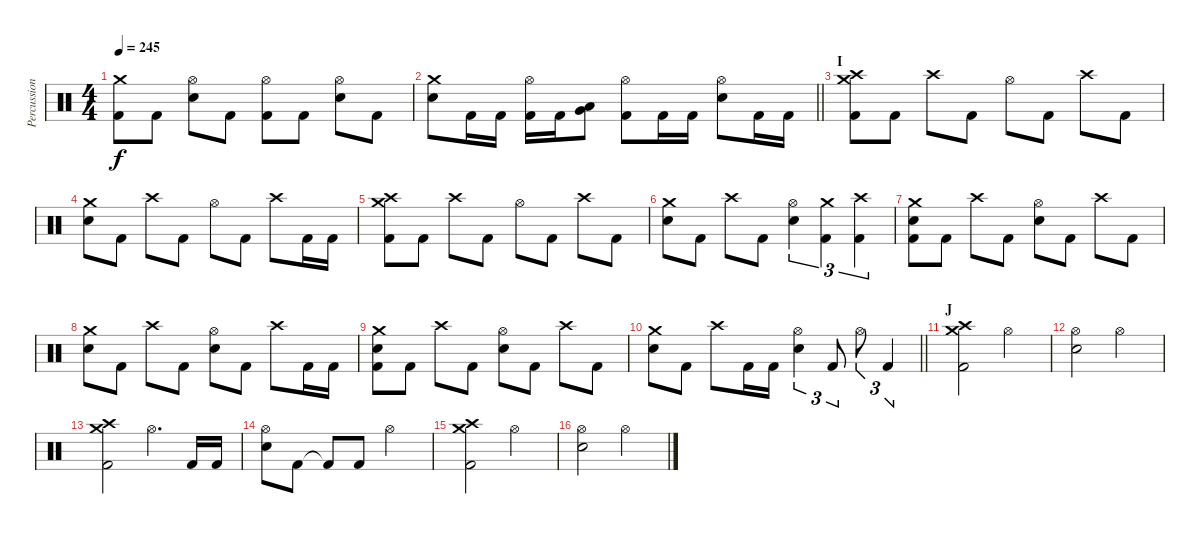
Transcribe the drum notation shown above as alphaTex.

\track ("Percussion" "Percussion") {instrument percussion}
\staff {score}
\articulation defaults
\ts (4 4)
\tempo 245
\clef neutral
\ks c
("Crash medium (hit)" "Kick (hit) 2").8{dy f} "Kick (hit) 2".8 ("Hi-Hat (open)" "Electric Snare (hit)").8 "Kick (hit) 2".8 ("Hi-Hat (open)" "Kick (hit) 2").8 "Kick (hit) 2".8 ("Hi-Hat (open)" "Electric Snare (hit)").8 "Kick (hit) 2".8 |
\barLineRight lightlight
("Crash medium (hit)" "Electric Snare (hit)").8 "Kick (hit) 2".16 "Kick (hit) 2".16 ("Hi-Hat (open)" "Kick (hit) 2").16 "Kick (hit) 2".16 ("Very Low Tom (hit)" "Low Floor Tom (hit)").8 ("Hi-Hat (open)" "Kick (hit) 2").8 "Kick (hit) 2".16 "Kick (hit) 2".16 ("Hi-Hat (open)" "Electric Snare (hit)").8 "Kick (hit) 2".16 "Kick (hit) 2".16 |
\section ("" "I")
("Crash medium (hit)" "Crash high (hit)" "Kick (hit) 2").8 "Kick (hit) 2".8 "Crash high (hit)".8 "Kick (hit) 2".8 "Hi-Hat (open)".8 "Kick (hit) 2".8 "Crash high (hit)".8 "Kick (hit) 2".8 |
("Crash medium (hit)" "Electric Snare (hit)").8 "Kick (hit) 2".8 "Crash high (hit)".8 "Kick (hit) 2".8 "Hi-Hat (open)".8 "Kick (hit) 2".8 "Crash high (hit)".8 "Kick (hit) 2".16 "Kick (hit) 2".16 |
("Crash medium (hit)" "Crash high (hit)" "Kick (hit) 2").8 "Kick (hit) 2".8 "Crash high (hit)".8 "Kick (hit) 2".8 "Hi-Hat (open)".8 "Kick (hit) 2".8 "Crash high (hit)".8 "Kick (hit) 2".8 |
("Crash medium (hit)" "Electric Snare (hit)").8 "Kick (hit) 2".8 "Crash high (hit)".8 "Kick (hit) 2".8 ("Hi-Hat (open)" "Electric Snare (hit)").4{tu (3 2)} ("Crash medium (hit)" "Kick (hit) 2").4{tu (3 2)} ("Crash high (hit)" "Kick (hit) 2").4{tu (3 2)} |
("Crash medium (hit)" "Electric Snare (hit)" "Kick (hit) 2").8 "Kick (hit) 2".8 "Crash high (hit)".8 "Kick (hit) 2".8 ("Hi-Hat (open)" "Electric Snare (hit)").8 "Kick (hit) 2".8 "Crash high (hit)".8 "Kick (hit) 2".8 |
("Crash medium (hit)" "Electric Snare (hit)").8 "Kick (hit) 2".8 "Crash high (hit)".8 "Kick (hit) 2".8 ("Hi-Hat (open)" "Electric Snare (hit)").8 "Kick (hit) 2".8 "Crash high (hit)".8 "Kick (hit) 2".16 "Kick (hit) 2".16 |
("Crash medium (hit)" "Electric Snare (hit)" "Kick (hit) 2").8 "Kick (hit) 2".8 "Crash high (hit)".8 "Kick (hit) 2".8 ("Hi-Hat (open)" "Electric Snare (hit)").8 "Kick (hit) 2".8 "Crash high (hit)".8 "Kick (hit) 2".8 |
\barLineRight lightlight
("Crash medium (hit)" "Electric Snare (hit)").8 "Kick (hit) 2".8 "Crash high (hit)".8 "Kick (hit) 2".16 "Kick (hit) 2".16 ("Hi-Hat (open)" "Electric Snare (hit)").4{tu (3 2)} "Kick (hit) 2".8{tu (3 2)} "Hi-Hat (open)".8{tu (3 2)} "Kick (hit) 2".4{tu (3 2)} |
\section ("" "J")
("Crash medium (hit)" "Crash high (hit)" "Kick (hit) 2").2 "Hi-Hat (open)".2 |
("Hi-Hat (open)" "Electric Snare (hit)").2 "Hi-Hat (open)".2 |
("Crash medium (hit)" "Crash high (hit)" "Kick (hit) 2").2 "Hi-Hat (open)".4{d} "Kick (hit) 2".16 "Kick (hit) 2".16 |
("Hi-Hat (open)" "Electric Snare (hit)").8 "Kick (hit) 2".8 "Kick (hit) 2"{t}.8 "Kick (hit) 2".8 "Hi-Hat (open)".2 |
("Crash medium (hit)" "Crash high (hit)" "Kick (hit) 2").2 "Hi-Hat (open)".2 |
("Hi-Hat (open)" "Electric Snare (hit)").2 "Hi-Hat (open)".2
